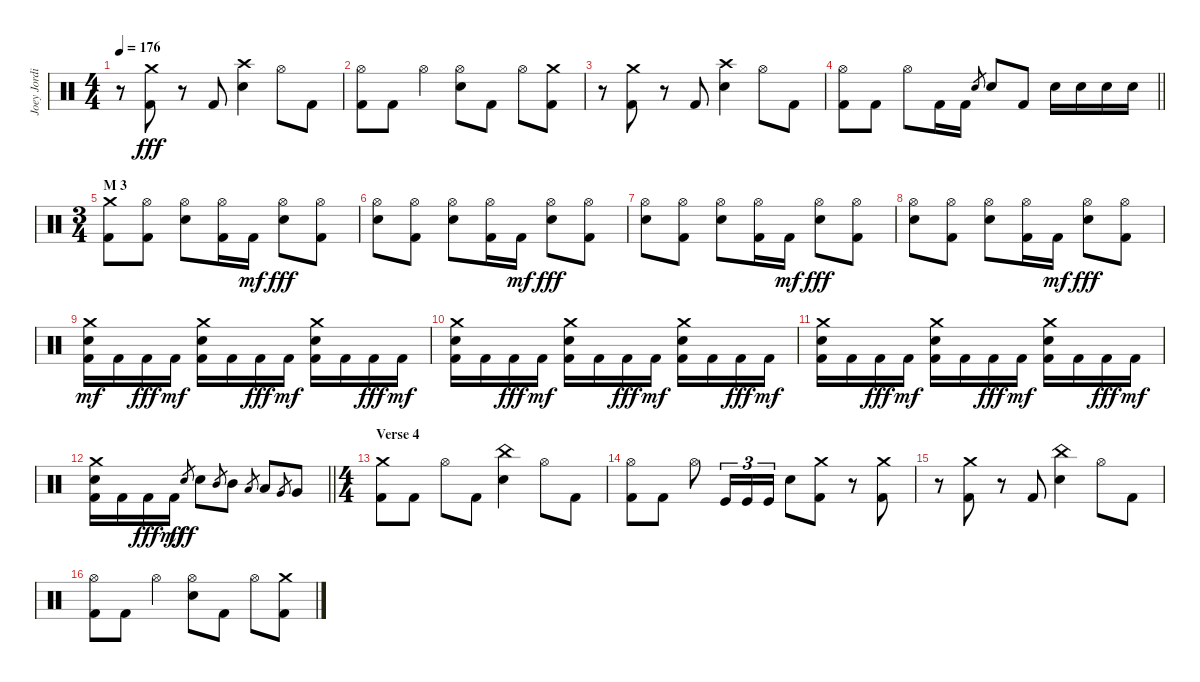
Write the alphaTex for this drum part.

\track ("Joey Jordison" "Joey Jordi") {instrument percussion}
\staff {score}
\articulation defaults
\ts (4 4)
\tempo 176
\clef neutral
\ks c
r.8{dy fff} ("Crash medium (hit)" "Kick (hit) 2").8 r.8 "Kick (hit) 2".8 ("Crash high (hit)" "Electric Snare (hit)").4 "Hi-Hat (open)".8 "Kick (hit) 2".8 |
("Hi-Hat (open)" "Kick (hit) 2").8 "Kick (hit) 2".8 "Hi-Hat (open)".4 ("Hi-Hat (open)" "Electric Snare (hit)").8 "Kick (hit) 2".8 "Hi-Hat (open)".8 ("Crash medium (hit)" "Kick (hit) 2").8 |
r.8 ("Crash medium (hit)" "Kick (hit) 2").8 r.8 "Kick (hit) 2".8 ("Crash high (hit)" "Electric Snare (hit)").4 "Hi-Hat (open)".8 "Kick (hit) 2".8 |
\barLineRight lightlight
("Hi-Hat (open)" "Kick (hit) 2").8 "Kick (hit) 2".8 "Hi-Hat (open)".8 "Kick (hit) 2".16 "Kick (hit) 2".16 "Electric Snare (hit)".8{gr} "Electric Snare (hit)".8 "Kick (hit) 2".8 "Electric Snare (hit)".16 "Electric Snare (hit)".16 "Electric Snare (hit)".16 "Electric Snare (hit)".16 |
\ts (3 4)
\section ("" "M 3")
("Crash medium (hit)" "Kick (hit) 2").8 ("Hi-Hat (open)" "Kick (hit) 2").8 ("Hi-Hat (open)" "Electric Snare (hit)").8 ("Hi-Hat (open)" "Kick (hit) 2").16 "Kick (hit) 2".16{dy mf} ("Hi-Hat (open)" "Electric Snare (hit)").8{dy fff} ("Hi-Hat (open)" "Kick (hit) 2").8 |
("Hi-Hat (open)" "Electric Snare (hit)").8 ("Hi-Hat (open)" "Kick (hit) 2").8 ("Hi-Hat (open)" "Electric Snare (hit)").8 ("Hi-Hat (open)" "Kick (hit) 2").16 "Kick (hit) 2".16{dy mf} ("Hi-Hat (open)" "Electric Snare (hit)").8{dy fff} ("Hi-Hat (open)" "Kick (hit) 2").8 |
("Hi-Hat (open)" "Electric Snare (hit)").8 ("Hi-Hat (open)" "Kick (hit) 2").8 ("Hi-Hat (open)" "Electric Snare (hit)").8 ("Hi-Hat (open)" "Kick (hit) 2").16 "Kick (hit) 2".16{dy mf} ("Hi-Hat (open)" "Electric Snare (hit)").8{dy fff} ("Hi-Hat (open)" "Kick (hit) 2").8 |
("Hi-Hat (open)" "Electric Snare (hit)").8 ("Hi-Hat (open)" "Kick (hit) 2").8 ("Hi-Hat (open)" "Electric Snare (hit)").8 ("Hi-Hat (open)" "Kick (hit) 2").16 "Kick (hit) 2".16{dy mf} ("Hi-Hat (open)" "Electric Snare (hit)").8{dy fff} ("Hi-Hat (open)" "Kick (hit) 2").8 |
("Crash medium (hit)" "Electric Snare (hit)" "Kick (hit) 2").16{dy mf} "Kick (hit) 2".16 "Kick (hit) 2".16{dy fff} "Kick (hit) 2".16{dy mf} ("Crash medium (hit)" "Electric Snare (hit)" "Kick (hit) 2").16 "Kick (hit) 2".16 "Kick (hit) 2".16{dy fff} "Kick (hit) 2".16{dy mf} ("Crash medium (hit)" "Electric Snare (hit)" "Kick (hit) 2").16 "Kick (hit) 2".16 "Kick (hit) 2".16{dy fff} "Kick (hit) 2".16{dy mf} |
("Crash medium (hit)" "Electric Snare (hit)" "Kick (hit) 2").16 "Kick (hit) 2".16 "Kick (hit) 2".16{dy fff} "Kick (hit) 2".16{dy mf} ("Crash medium (hit)" "Electric Snare (hit)" "Kick (hit) 2").16 "Kick (hit) 2".16 "Kick (hit) 2".16{dy fff} "Kick (hit) 2".16{dy mf} ("Crash medium (hit)" "Electric Snare (hit)" "Kick (hit) 2").16 "Kick (hit) 2".16 "Kick (hit) 2".16{dy fff} "Kick (hit) 2".16{dy mf} |
("Crash medium (hit)" "Electric Snare (hit)" "Kick (hit) 2").16 "Kick (hit) 2".16 "Kick (hit) 2".16{dy fff} "Kick (hit) 2".16{dy mf} ("Crash medium (hit)" "Electric Snare (hit)" "Kick (hit) 2").16 "Kick (hit) 2".16 "Kick (hit) 2".16{dy fff} "Kick (hit) 2".16{dy mf} ("Crash medium (hit)" "Electric Snare (hit)" "Kick (hit) 2").16 "Kick (hit) 2".16 "Kick (hit) 2".16{dy fff} "Kick (hit) 2".16{dy mf} |
\barLineRight lightlight
("Crash medium (hit)" "Electric Snare (hit)" "Kick (hit) 2").16 "Kick (hit) 2".16 "Kick (hit) 2".16{dy fff} "Kick (hit) 2".16{dy mf} "Electric Snare (hit)".8{gr dy fff} "Electric Snare (hit)".8 "Mid Tom (hit)".8{gr} "Mid Tom (hit)".8 "Low Tom (hit)".8{gr} "Low Tom (hit)".8 "Very Low Tom (hit)".8{gr} "Very Low Tom (hit)".8 |
\ts (4 4)
\section ("" "Verse 4")
("Crash medium (hit)" "Kick (hit) 2").8 "Kick (hit) 2".8 "Hi-Hat (open)".8 "Kick (hit) 2".8 ("China (hit)" "Electric Snare (hit)").4 "Hi-Hat (open)".8 "Kick (hit) 2".8 |
("Hi-Hat (open)" "Kick (hit) 2").8 "Kick (hit) 2".8 "Hi-Hat (open)".8 "Kick (hit)".16{tu (3 2)} "Kick (hit)".16{tu (3 2)} "Kick (hit)".16{tu (3 2)} "Electric Snare (hit)".8 ("Crash medium (hit)" "Kick (hit) 2").8 r.8 ("Crash medium (hit)" "Kick (hit) 2").8 |
r.8 ("Crash medium (hit)" "Kick (hit) 2").8 r.8 "Kick (hit) 2".8 ("China (hit)" "Electric Snare (hit)").4 "Hi-Hat (open)".8 "Kick (hit) 2".8 |
("Hi-Hat (open)" "Kick (hit) 2").8 "Kick (hit) 2".8 "Hi-Hat (open)".4 ("Hi-Hat (open)" "Electric Snare (hit)").8 "Kick (hit) 2".8 "Hi-Hat (open)".8 ("Crash medium (hit)" "Kick (hit) 2").8
